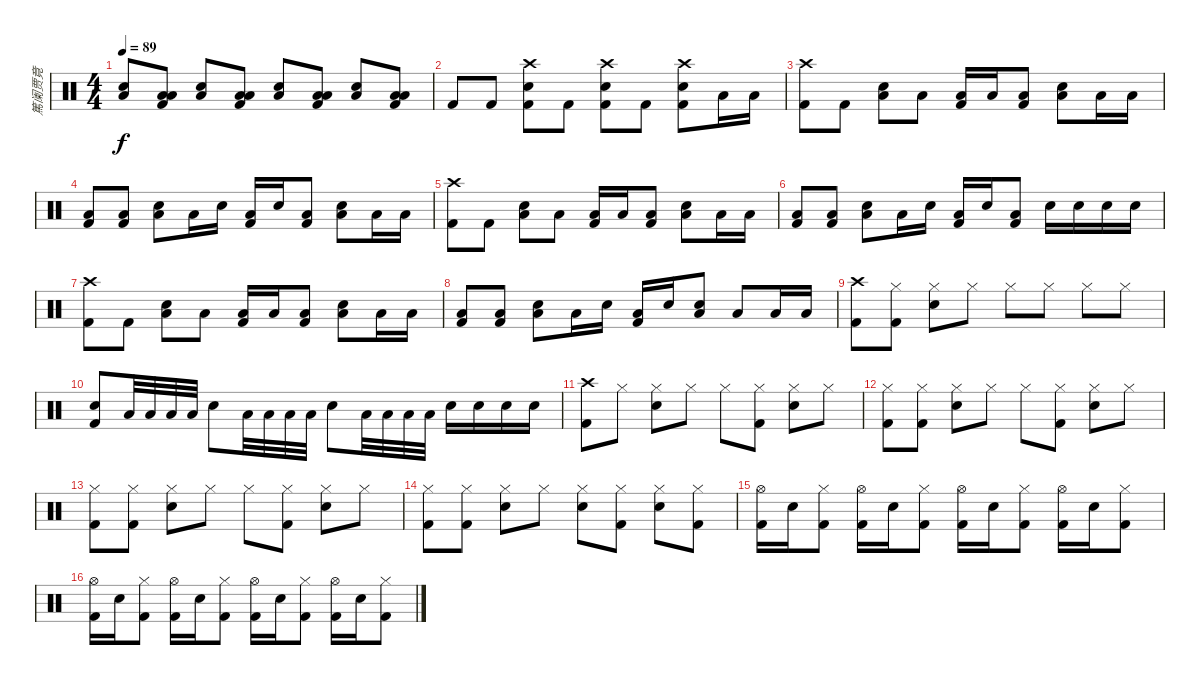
\track ("篤阑贾竟" "篤阑贾竟") {instrument percussion}
\staff {score}
\articulation defaults
\ts (4 4)
\tempo 89
\clef neutral
\ks c
("Snare (hit) 2" "Low Floor Tom (hit)").8{dy f} ("Low Tom (hit)" "Low Floor Tom (hit)" "Kick (hit) 2").8 ("Snare (hit) 2" "Low Floor Tom (hit)").8 ("Low Tom (hit)" "Low Floor Tom (hit)" "Kick (hit) 2").8 ("Snare (hit) 2" "Low Floor Tom (hit)").8 ("Low Tom (hit)" "Low Floor Tom (hit)" "Kick (hit) 2").8 ("Snare (hit) 2" "Low Floor Tom (hit)").8 ("Low Tom (hit)" "Low Floor Tom (hit)" "Kick (hit) 2").8 |
"Kick (hit) 2".8 "Kick (hit) 2".8 ("Crash high (hit)" "Snare (hit) 2" "Kick (hit) 2").8 "Kick (hit) 2".8 ("Crash high (hit)" "Snare (hit) 2" "Kick (hit) 2").8 "Kick (hit) 2".8 ("Crash high (hit)" "Snare (hit) 2" "Kick (hit) 2").8 "Low Tom (hit)".16 "Low Tom (hit)".16 |
("Crash high (hit)" "Kick (hit) 2").8 "Kick (hit) 2".8 ("Snare (hit) 2" "Low Floor Tom (hit)").8 "Low Floor Tom (hit)".8 ("Low Floor Tom (hit)" "Kick (hit) 2").16 "Low Floor Tom (hit)".16 ("Low Floor Tom (hit)" "Kick (hit) 2").8 ("Snare (hit) 2" "Low Floor Tom (hit)").8 "Low Floor Tom (hit)".16 "Low Floor Tom (hit)".16 |
("Low Floor Tom (hit)" "Kick (hit) 2").8 ("Low Floor Tom (hit)" "Kick (hit) 2").8 ("Snare (hit) 2" "Low Floor Tom (hit)").8 "Low Floor Tom (hit)".16 "Snare (hit) 2".16 ("Low Floor Tom (hit)" "Kick (hit) 2").16 "Snare (hit) 2".16 ("Low Floor Tom (hit)" "Kick (hit) 2").8 ("Snare (hit) 2" "Low Floor Tom (hit)").8 "Low Floor Tom (hit)".16 "Low Floor Tom (hit)".16 |
("Crash high (hit)" "Kick (hit) 2").8 "Kick (hit) 2".8 ("Snare (hit) 2" "Low Floor Tom (hit)").8 "Low Floor Tom (hit)".8 ("Low Floor Tom (hit)" "Kick (hit) 2").16 "Low Floor Tom (hit)".16 ("Low Floor Tom (hit)" "Kick (hit) 2").8 ("Snare (hit) 2" "Low Floor Tom (hit)").8 "Low Floor Tom (hit)".16 "Low Floor Tom (hit)".16 |
("Low Floor Tom (hit)" "Kick (hit) 2").8 ("Low Floor Tom (hit)" "Kick (hit) 2").8 ("Snare (hit) 2" "Low Floor Tom (hit)").8 "Low Floor Tom (hit)".16 "Snare (hit) 2".16 ("Low Floor Tom (hit)" "Kick (hit) 2").16 "Snare (hit) 2".16 ("Low Floor Tom (hit)" "Kick (hit) 2").8 "Snare (hit) 2".16 "Snare (hit) 2".16 "Snare (hit) 2".16 "Snare (hit) 2".16 |
("Crash high (hit)" "Kick (hit) 2").8 "Kick (hit) 2".8 ("Snare (hit) 2" "Low Floor Tom (hit)").8 "Low Floor Tom (hit)".8 ("Low Floor Tom (hit)" "Kick (hit) 2").16 "Low Floor Tom (hit)".16 ("Low Floor Tom (hit)" "Kick (hit) 2").8 ("Snare (hit) 2" "Low Floor Tom (hit)").8 "Low Floor Tom (hit)".16 "Low Floor Tom (hit)".16 |
("Low Floor Tom (hit)" "Kick (hit) 2").8 ("Low Floor Tom (hit)" "Kick (hit) 2").8 ("Snare (hit) 2" "Low Floor Tom (hit)").8 "Low Floor Tom (hit)".16 "Snare (hit) 2".16 ("Low Floor Tom (hit)" "Kick (hit) 2").16 "Snare (hit) 2".16 ("Snare (hit) 2" "Low Floor Tom (hit)").8 "Low Floor Tom (hit)".8 "Low Tom (hit)".16 "Low Tom (hit)".16 |
("Crash high (hit)" "Kick (hit) 2").8 ("Hi-Hat (closed)" "Kick (hit) 2").8 ("Hi-Hat (closed)" "Snare (hit) 2").8 "Hi-Hat (closed)".8 "Hi-Hat (closed)".8 "Hi-Hat (closed)".8 "Hi-Hat (closed)".8 "Hi-Hat (closed)".8 |
("Snare (hit) 2" "Kick (hit) 2").8 "Low Tom (hit)".32 "Low Tom (hit)".32 "Low Tom (hit)".32 "Low Tom (hit)".32 "Snare (hit) 2".8 "Low Tom (hit)".32 "Low Tom (hit)".32 "Low Tom (hit)".32 "Low Tom (hit)".32 "Snare (hit) 2".8 "Low Tom (hit)".32 "Low Tom (hit)".32 "Low Tom (hit)".32 "Low Tom (hit)".32 "Snare (hit) 2".16 "Snare (hit) 2".16 "Snare (hit) 2".16 "Snare (hit) 2".16 |
("Crash high (hit)" "Kick (hit) 2").8 "Hi-Hat (closed)".8 ("Hi-Hat (closed)" "Snare (hit) 2").8 "Hi-Hat (closed)".8 "Hi-Hat (closed)".8 ("Hi-Hat (closed)" "Kick (hit) 2").8 ("Hi-Hat (closed)" "Snare (hit) 2").8 "Hi-Hat (closed)".8 |
("Hi-Hat (closed)" "Kick (hit) 2").8 ("Hi-Hat (closed)" "Kick (hit) 2").8 ("Hi-Hat (closed)" "Snare (hit) 2").8 "Hi-Hat (closed)".8 "Hi-Hat (closed)".8 ("Hi-Hat (closed)" "Kick (hit) 2").8 ("Hi-Hat (closed)" "Snare (hit) 2").8 "Hi-Hat (closed)".8 |
("Hi-Hat (closed)" "Kick (hit) 2").8 ("Hi-Hat (closed)" "Kick (hit) 2").8 ("Hi-Hat (closed)" "Snare (hit) 2").8 "Hi-Hat (closed)".8 "Hi-Hat (closed)".8 ("Hi-Hat (closed)" "Kick (hit) 2").8 ("Hi-Hat (closed)" "Snare (hit) 2").8 "Hi-Hat (closed)".8 |
("Hi-Hat (closed)" "Kick (hit) 2").8 ("Hi-Hat (closed)" "Kick (hit) 2").8 ("Hi-Hat (closed)" "Snare (hit) 2").8 "Hi-Hat (closed)".8 ("Hi-Hat (closed)" "Snare (hit) 2").8 ("Hi-Hat (closed)" "Kick (hit) 2").8 ("Hi-Hat (closed)" "Snare (hit) 2").8 ("Hi-Hat (closed)" "Kick (hit) 2").8 |
("Hi-Hat (open)" "Kick (hit) 2").16 "Snare (hit) 2".16 ("Hi-Hat (closed)" "Kick (hit) 2").8 ("Hi-Hat (open)" "Kick (hit) 2").16 "Snare (hit) 2".16 ("Hi-Hat (closed)" "Kick (hit) 2").8 ("Hi-Hat (open)" "Kick (hit) 2").16 "Snare (hit) 2".16 ("Hi-Hat (closed)" "Kick (hit) 2").8 ("Hi-Hat (open)" "Kick (hit) 2").16 "Snare (hit) 2".16 ("Hi-Hat (closed)" "Kick (hit) 2").8 |
("Hi-Hat (open)" "Kick (hit) 2").16 "Snare (hit) 2".16 ("Hi-Hat (closed)" "Kick (hit) 2").8 ("Hi-Hat (open)" "Kick (hit) 2").16 "Snare (hit) 2".16 ("Hi-Hat (closed)" "Kick (hit) 2").8 ("Hi-Hat (open)" "Kick (hit) 2").16 "Snare (hit) 2".16 ("Hi-Hat (closed)" "Kick (hit) 2").8 ("Hi-Hat (open)" "Kick (hit) 2").16 "Snare (hit) 2".16 ("Hi-Hat (closed)" "Kick (hit) 2").8
